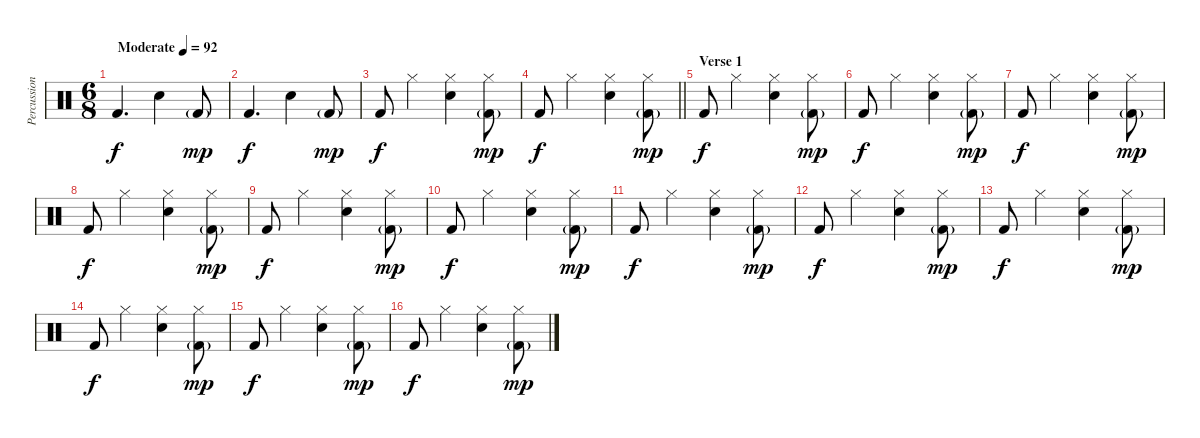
\track ("Percussion" "Percussion") {instrument percussion}
\staff {score}
\articulation defaults
\ts (6 8)
\tempo (92 "Moderate")
\clef neutral
\ks c "Kick (hit) 2".4{d dy f} "Snare (hit) 2".4 "Kick (hit) 2"{g}.8{dy mp}
|
"Kick (hit) 2".4{d dy f} "Snare (hit) 2".4 "Kick (hit) 2"{g}.8{dy mp} |
"Kick (hit) 2".8{dy f} "Hi-Hat (closed)".4 ("Hi-Hat (closed)" "Snare (hit) 2").4 ("Hi-Hat (closed)" "Kick (hit) 2"{g}).8{dy mp} |
\barLineRight lightlight "Kick (hit) 2".8{dy f} "Hi-Hat (closed)".4
("Hi-Hat (closed)" "Snare (hit) 2").4 ("Hi-Hat (closed)" "Kick (hit) 2"{g}).8{dy mp} |
\section ("" "Verse 1")
"Kick (hit) 2".8{dy f} "Hi-Hat (closed)".4 ("Hi-Hat (closed)" "Snare (hit) 2").4 ("Hi-Hat (closed)" "Kick (hit) 2"{g}).8{dy mp} |
"Kick (hit) 2".8{dy f} "Hi-Hat (closed)".4 ("Hi-Hat (closed)" "Snare (hit) 2").4 ("Hi-Hat (closed)" "Kick (hit) 2"{g}).8{dy mp} |
"Kick (hit) 2".8{dy f} "Hi-Hat (closed)".4 ("Hi-Hat (closed)" "Snare (hit) 2").4 ("Hi-Hat (closed)" "Kick (hit) 2"{g}).8{dy mp} |
"Kick (hit) 2".8{dy f} "Hi-Hat (closed)".4 ("Hi-Hat (closed)" "Snare (hit) 2").4 ("Hi-Hat (closed)" "Kick (hit) 2"{g}).8{dy mp} |
"Kick (hit) 2".8{dy f} "Hi-Hat (closed)".4 ("Hi-Hat (closed)" "Snare (hit) 2").4 ("Hi-Hat (closed)" "Kick (hit) 2"{g}).8{dy mp} |
"Kick (hit) 2".8{dy f} "Hi-Hat (closed)".4 ("Hi-Hat (closed)" "Snare (hit) 2").4 ("Hi-Hat (closed)" "Kick (hit) 2"{g}).8{dy mp} |
"Kick (hit) 2".8{dy f} "Hi-Hat (closed)".4 ("Hi-Hat (closed)" "Snare (hit) 2").4 ("Hi-Hat (closed)" "Kick (hit) 2"{g}).8{dy mp} |
"Kick (hit) 2".8{dy f} "Hi-Hat (closed)".4 ("Hi-Hat (closed)" "Snare (hit) 2").4 ("Hi-Hat (closed)" "Kick (hit) 2"{g}).8{dy mp} |
"Kick (hit) 2".8{dy f} "Hi-Hat (closed)".4 ("Hi-Hat (closed)" "Snare (hit) 2").4 ("Hi-Hat (closed)" "Kick (hit) 2"{g}).8{dy mp} |
"Kick (hit) 2".8{dy f} "Hi-Hat (closed)".4 ("Hi-Hat (closed)" "Snare (hit) 2").4 ("Hi-Hat (closed)" "Kick (hit) 2"{g}).8{dy mp} |
"Kick (hit) 2".8{dy f} "Hi-Hat (closed)".4 ("Hi-Hat (closed)" "Snare (hit) 2").4 ("Hi-Hat (closed)" "Kick (hit) 2"{g}).8{dy mp} |
"Kick (hit) 2".8{dy f} "Hi-Hat (closed)".4 ("Hi-Hat (closed)" "Snare (hit) 2").4 ("Hi-Hat (closed)" "Kick (hit) 2"{g}).8{dy mp}
